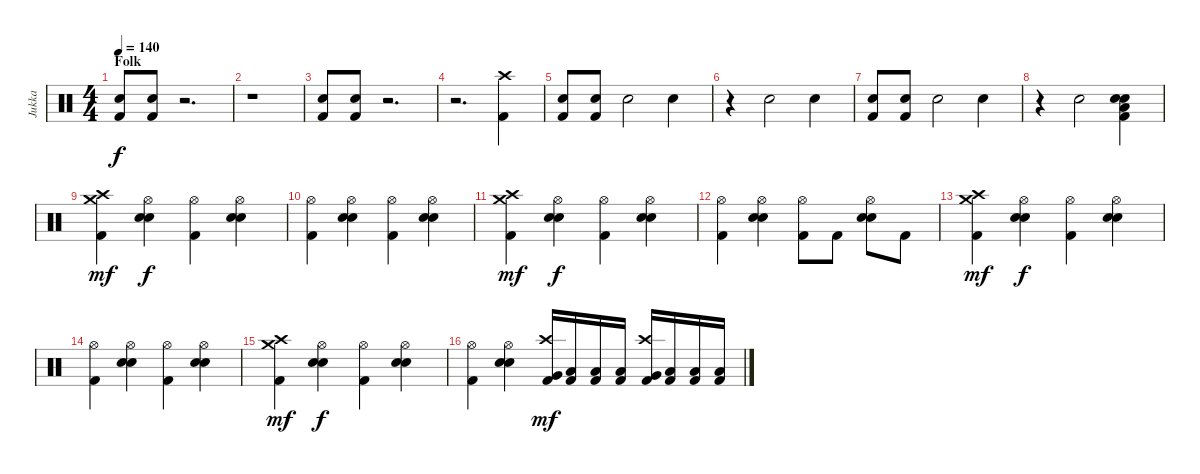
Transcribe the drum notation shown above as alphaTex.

\track ("Jukka" "Jukka") {instrument percussion}
\staff {score}
\articulation defaults
\ts (4 4)
\section ("" "Folk")
\tempo 140
\clef neutral
\ks aminor
("Electric Snare (hit)" "Kick (hit) 2").8{dy f} ("Electric Snare (hit)" "Kick (hit) 2").8 r.2{d} |
r.1 |
("Electric Snare (hit)" "Kick (hit) 2").8 ("Electric Snare (hit)" "Kick (hit) 2").8 r.2{d} |
r.2{d} ("Crash high (hit)" "Kick (hit) 2").4 |
("Electric Snare (hit)" "Kick (hit) 2").8 ("Electric Snare (hit)" "Kick (hit) 2").8 "Hand Clap (hit)".2 "Hand Clap (hit)".4 |
r.4 "Hand Clap (hit)".2 "Hand Clap (hit)".4 |
("Electric Snare (hit)" "Kick (hit) 2").8 ("Electric Snare (hit)" "Kick (hit) 2").8 "Hand Clap (hit)".2 "Hand Clap (hit)".4 |
r.4 "Hand Clap (hit)".2 ("Hand Clap (hit)" "Low Floor Tom (hit)" "Electric Snare (hit)" "Kick (hit) 2").4 |
("Crash medium (hit)" "Crash high (hit)" "Kick (hit) 2").4{dy mf} ("Hi-Hat (open)" "Hand Clap (hit)" "Electric Snare (hit)").4{dy f} ("Hi-Hat (open)" "Kick (hit) 2").4 ("Hi-Hat (open)" "Hand Clap (hit)" "Electric Snare (hit)").4 |
("Hi-Hat (open)" "Kick (hit) 2").4 ("Hi-Hat (open)" "Hand Clap (hit)" "Electric Snare (hit)").4 ("Hi-Hat (open)" "Kick (hit) 2").4 ("Hi-Hat (open)" "Hand Clap (hit)" "Electric Snare (hit)").4 |
("Crash medium (hit)" "Crash high (hit)" "Kick (hit) 2").4{dy mf} ("Hi-Hat (open)" "Hand Clap (hit)" "Electric Snare (hit)").4{dy f} ("Hi-Hat (open)" "Kick (hit) 2").4 ("Hi-Hat (open)" "Hand Clap (hit)" "Electric Snare (hit)").4 |
("Hi-Hat (open)" "Kick (hit) 2").4 ("Hi-Hat (open)" "Hand Clap (hit)" "Electric Snare (hit)").4 ("Hi-Hat (open)" "Kick (hit) 2").8 "Kick (hit) 2".8 ("Hi-Hat (open)" "Hand Clap (hit)" "Electric Snare (hit)").8 "Kick (hit) 2".8 |
("Crash medium (hit)" "Crash high (hit)" "Kick (hit) 2").4{dy mf} ("Hi-Hat (open)" "Hand Clap (hit)" "Electric Snare (hit)").4{dy f} ("Hi-Hat (open)" "Kick (hit) 2").4 ("Hi-Hat (open)" "Hand Clap (hit)" "Electric Snare (hit)").4 |
("Hi-Hat (open)" "Kick (hit) 2").4 ("Hi-Hat (open)" "Hand Clap (hit)" "Electric Snare (hit)").4 ("Hi-Hat (open)" "Kick (hit) 2").4 ("Hi-Hat (open)" "Hand Clap (hit)" "Electric Snare (hit)").4 |
("Crash medium (hit)" "Crash high (hit)" "Kick (hit) 2").4{dy mf} ("Hi-Hat (open)" "Hand Clap (hit)" "Electric Snare (hit)").4{dy f} ("Hi-Hat (open)" "Kick (hit) 2").4 ("Hi-Hat (open)" "Hand Clap (hit)" "Electric Snare (hit)").4 |
("Hi-Hat (open)" "Kick (hit) 2").4 ("Hi-Hat (open)" "Hand Clap (hit)" "Electric Snare (hit)").4 ("Crash high (hit)" "Very Low Tom (hit)" "Kick (hit) 2").16{dy mf} ("Low Floor Tom (hit)" "Kick (hit) 2").16 ("Low Floor Tom (hit)" "Kick (hit) 2").16 ("Low Floor Tom (hit)" "Kick (hit) 2").16 ("Crash high (hit)" "Very Low Tom (hit)" "Kick (hit) 2").16 ("Low Floor Tom (hit)" "Kick (hit) 2").16 ("Low Floor Tom (hit)" "Kick (hit) 2").16 ("Low Floor Tom (hit)" "Kick (hit) 2").16
